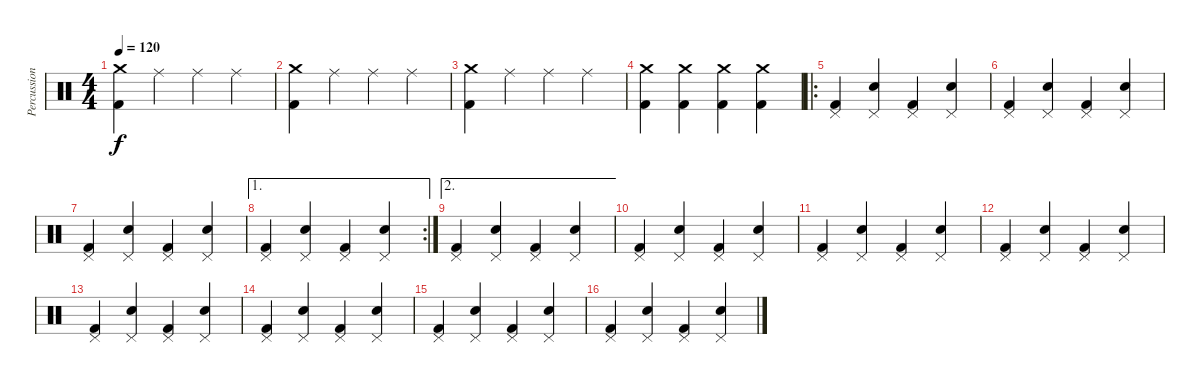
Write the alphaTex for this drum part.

\track ("Percussion" "Percussion") {instrument percussion}
\staff {score}
\articulation defaults
\ts (4 4)
\tempo 120
\clef neutral
\ks c
("Kick (hit) 2" "Crash medium (hit)").4{dy f} "Ride (middle)".4 "Ride (middle)".4 "Ride (middle)".4 |
("Kick (hit) 2" "Crash medium (hit)").4 "Ride (middle)".4 "Ride (middle)".4 "Ride (middle)".4 |
("Kick (hit) 2" "Crash medium (hit)").4 "Ride (middle)".4 "Ride (middle)".4 "Ride (middle)".4 |
("Crash medium (hit)" "Kick (hit) 2").4 ("Crash medium (hit)" "Kick (hit) 2").4 ("Crash medium (hit)" "Kick (hit) 2").4 ("Crash medium (hit)" "Kick (hit) 2").4 |
\ro
("Pedal Hi-Hat (hit)" "Kick (hit) 2").4 ("Pedal Hi-Hat (hit)" "Electric Snare (hit)").4 ("Pedal Hi-Hat (hit)" "Kick (hit) 2").4 ("Pedal Hi-Hat (hit)" "Electric Snare (hit)").4 |
("Pedal Hi-Hat (hit)" "Kick (hit) 2").4 ("Pedal Hi-Hat (hit)" "Electric Snare (hit)").4 ("Pedal Hi-Hat (hit)" "Kick (hit) 2").4 ("Pedal Hi-Hat (hit)" "Electric Snare (hit)").4 |
("Pedal Hi-Hat (hit)" "Kick (hit) 2").4 ("Pedal Hi-Hat (hit)" "Electric Snare (hit)").4 ("Pedal Hi-Hat (hit)" "Kick (hit) 2").4 ("Pedal Hi-Hat (hit)" "Electric Snare (hit)").4 |
\ae 1
\rc 2
("Pedal Hi-Hat (hit)" "Kick (hit) 2").4 ("Pedal Hi-Hat (hit)" "Electric Snare (hit)").4 ("Pedal Hi-Hat (hit)" "Kick (hit) 2").4 ("Pedal Hi-Hat (hit)" "Electric Snare (hit)").4 |
\ae 2
("Pedal Hi-Hat (hit)" "Kick (hit) 2").4 ("Pedal Hi-Hat (hit)" "Electric Snare (hit)").4 ("Pedal Hi-Hat (hit)" "Kick (hit) 2").4 ("Pedal Hi-Hat (hit)" "Electric Snare (hit)").4 |
("Pedal Hi-Hat (hit)" "Kick (hit) 2").4 ("Pedal Hi-Hat (hit)" "Electric Snare (hit)").4 ("Pedal Hi-Hat (hit)" "Kick (hit) 2").4 ("Pedal Hi-Hat (hit)" "Electric Snare (hit)").4 |
("Pedal Hi-Hat (hit)" "Kick (hit) 2").4 ("Pedal Hi-Hat (hit)" "Electric Snare (hit)").4 ("Pedal Hi-Hat (hit)" "Kick (hit) 2").4 ("Pedal Hi-Hat (hit)" "Electric Snare (hit)").4 |
("Pedal Hi-Hat (hit)" "Kick (hit) 2").4 ("Pedal Hi-Hat (hit)" "Electric Snare (hit)").4 ("Pedal Hi-Hat (hit)" "Kick (hit) 2").4 ("Pedal Hi-Hat (hit)" "Electric Snare (hit)").4 |
("Pedal Hi-Hat (hit)" "Kick (hit) 2").4 ("Pedal Hi-Hat (hit)" "Electric Snare (hit)").4 ("Pedal Hi-Hat (hit)" "Kick (hit) 2").4 ("Pedal Hi-Hat (hit)" "Electric Snare (hit)").4 |
("Pedal Hi-Hat (hit)" "Kick (hit) 2").4 ("Pedal Hi-Hat (hit)" "Electric Snare (hit)").4 ("Pedal Hi-Hat (hit)" "Kick (hit) 2").4 ("Pedal Hi-Hat (hit)" "Electric Snare (hit)").4 |
("Pedal Hi-Hat (hit)" "Kick (hit) 2").4 ("Pedal Hi-Hat (hit)" "Electric Snare (hit)").4 ("Pedal Hi-Hat (hit)" "Kick (hit) 2").4 ("Pedal Hi-Hat (hit)" "Electric Snare (hit)").4 |
("Pedal Hi-Hat (hit)" "Kick (hit) 2").4 ("Pedal Hi-Hat (hit)" "Electric Snare (hit)").4 ("Pedal Hi-Hat (hit)" "Kick (hit) 2").4 ("Pedal Hi-Hat (hit)" "Electric Snare (hit)").4
